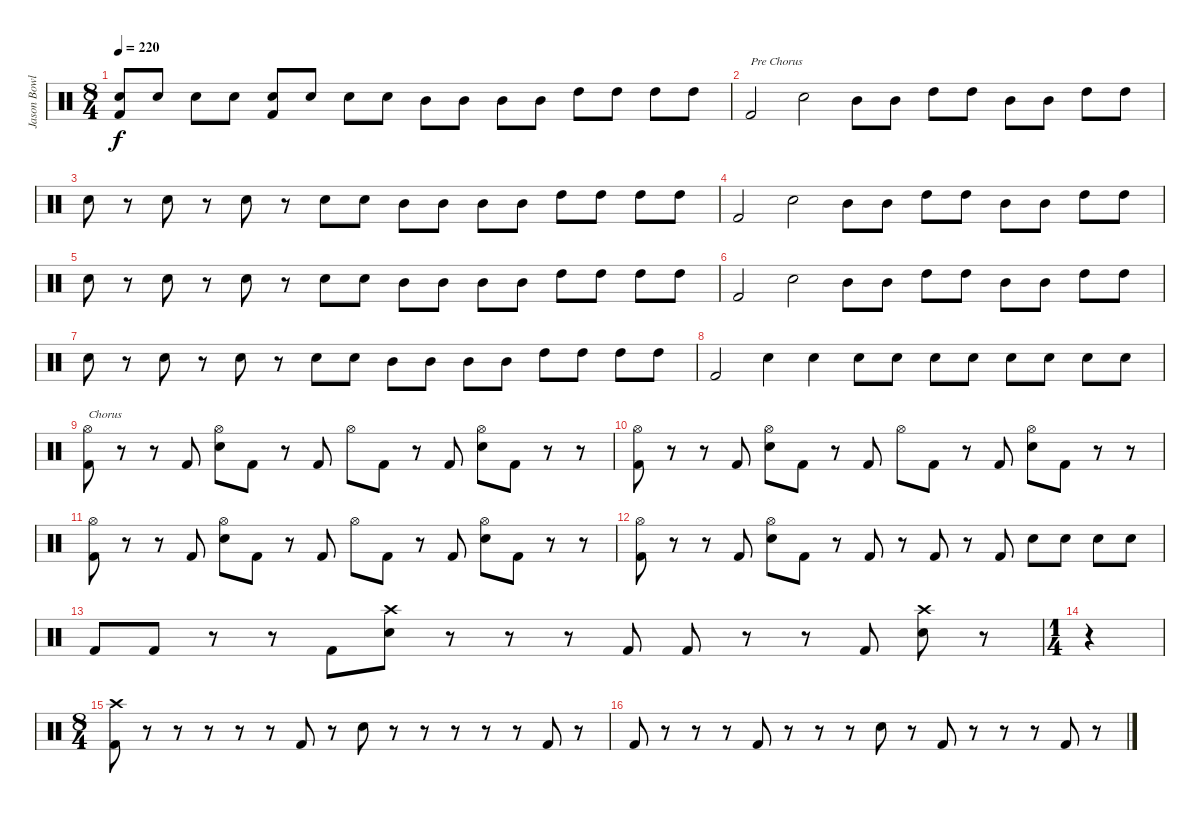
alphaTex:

\track ("Jason Bowld" "Jason Bowl") {instrument percussion}
\staff {score}
\articulation defaults
\ts (8 4)
\tempo 220
\clef neutral
\ks c
("Snare (hit) 2" "Kick (hit) 2").8{dy f} "Snare (hit) 2".8 "Snare (hit) 2".8 "Snare (hit) 2".8 ("Snare (hit) 2" "Kick (hit) 2").8 "Snare (hit) 2".8 "Snare (hit) 2".8 "Snare (hit) 2".8 "Mid Tom (hit)".8 "Mid Tom (hit)".8 "Mid Tom (hit)".8 "Mid Tom (hit)".8 "High Tom (hit)".8 "High Tom (hit)".8 "High Tom (hit)".8 "High Tom (hit)".8 |
"Kick (hit) 2".2{txt "Pre Chorus"} "Snare (hit) 2".2 "Mid Tom (hit)".8 "Mid Tom (hit)".8 "High Tom (hit)".8 "High Tom (hit)".8 "Mid Tom (hit)".8 "Mid Tom (hit)".8 "High Tom (hit)".8 "High Tom (hit)".8 |
"Snare (hit) 2".8 r.8 "Snare (hit) 2".8 r.8 "Snare (hit) 2".8 r.8 "Snare (hit) 2".8 "Snare (hit) 2".8 "Mid Tom (hit)".8 "Mid Tom (hit)".8 "Mid Tom (hit)".8 "Mid Tom (hit)".8 "High Tom (hit)".8 "High Tom (hit)".8 "High Tom (hit)".8 "High Tom (hit)".8 |
"Kick (hit) 2".2 "Snare (hit) 2".2 "Mid Tom (hit)".8 "Mid Tom (hit)".8 "High Tom (hit)".8 "High Tom (hit)".8 "Mid Tom (hit)".8 "Mid Tom (hit)".8 "High Tom (hit)".8 "High Tom (hit)".8 |
"Snare (hit) 2".8 r.8 "Snare (hit) 2".8 r.8 "Snare (hit) 2".8 r.8 "Snare (hit) 2".8 "Snare (hit) 2".8 "Mid Tom (hit)".8 "Mid Tom (hit)".8 "Mid Tom (hit)".8 "Mid Tom (hit)".8 "High Tom (hit)".8 "High Tom (hit)".8 "High Tom (hit)".8 "High Tom (hit)".8 |
"Kick (hit) 2".2 "Snare (hit) 2".2 "Mid Tom (hit)".8 "Mid Tom (hit)".8 "High Tom (hit)".8 "High Tom (hit)".8 "Mid Tom (hit)".8 "Mid Tom (hit)".8 "High Tom (hit)".8 "High Tom (hit)".8 |
"Snare (hit) 2".8 r.8 "Snare (hit) 2".8 r.8 "Snare (hit) 2".8 r.8 "Snare (hit) 2".8 "Snare (hit) 2".8 "Mid Tom (hit)".8 "Mid Tom (hit)".8 "Mid Tom (hit)".8 "Mid Tom (hit)".8 "High Tom (hit)".8 "High Tom (hit)".8 "High Tom (hit)".8 "High Tom (hit)".8 |
"Kick (hit) 2".2 "Snare (hit) 2".4 "Snare (hit) 2".4 "Snare (hit) 2".8 "Snare (hit) 2".8 "Snare (hit) 2".8 "Snare (hit) 2".8 "Snare (hit) 2".8 "Snare (hit) 2".8 "Snare (hit) 2".8 "Snare (hit) 2".8 |
("Hi-Hat (open)" "Kick (hit) 2").8{txt "Chorus"} r.8 r.8 "Kick (hit) 2".8 ("Hi-Hat (open)" "Snare (hit) 2").8 "Kick (hit) 2".8 r.8 "Kick (hit) 2".8 "Hi-Hat (open)".8 "Kick (hit) 2".8 r.8 "Kick (hit) 2".8 ("Hi-Hat (open)" "Snare (hit) 2").8 "Kick (hit) 2".8 r.8 r.8 |
("Hi-Hat (open)" "Kick (hit) 2").8 r.8 r.8 "Kick (hit) 2".8 ("Hi-Hat (open)" "Snare (hit) 2").8 "Kick (hit) 2".8 r.8 "Kick (hit) 2".8 "Hi-Hat (open)".8 "Kick (hit) 2".8 r.8 "Kick (hit) 2".8 ("Hi-Hat (open)" "Snare (hit) 2").8 "Kick (hit) 2".8 r.8 r.8 |
("Hi-Hat (open)" "Kick (hit) 2").8 r.8 r.8 "Kick (hit) 2".8 ("Hi-Hat (open)" "Snare (hit) 2").8 "Kick (hit) 2".8 r.8 "Kick (hit) 2".8 "Hi-Hat (open)".8 "Kick (hit) 2".8 r.8 "Kick (hit) 2".8 ("Hi-Hat (open)" "Snare (hit) 2").8 "Kick (hit) 2".8 r.8 r.8 |
("Hi-Hat (open)" "Kick (hit) 2").8 r.8 r.8 "Kick (hit) 2".8 ("Hi-Hat (open)" "Snare (hit) 2").8 "Kick (hit) 2".8 r.8 "Kick (hit) 2".8 r.8 "Kick (hit) 2".8 r.8 "Kick (hit) 2".8 "Snare (hit) 2".8 "Snare (hit) 2".8 "Snare (hit) 2".8 "Snare (hit) 2".8 |
"Kick (hit) 2".8 "Kick (hit) 2".8 r.8 r.8 "Kick (hit) 2".8 ("Snare (hit) 2" "Crash high (hit)").8 r.8 r.8 r.8 "Kick (hit) 2".8 "Kick (hit) 2".8 r.8 r.8 "Kick (hit) 2".8 ("Snare (hit) 2" "Crash high (hit)").8 r.8 |
\ts (1 4)
r.4 |
\ts (8 4)
("Kick (hit) 2" "Crash high (hit)").8 r.8 r.8 r.8 r.8 r.8 "Kick (hit) 2".8 r.8 "Snare (hit) 2".8 r.8 r.8 r.8 r.8 r.8 "Kick (hit) 2".8 r.8 |
"Kick (hit) 2".8 r.8 r.8 r.8 "Kick (hit) 2".8 r.8 r.8 r.8 "Snare (hit) 2".8 r.8 "Kick (hit) 2".8 r.8 r.8 r.8 "Kick (hit) 2".8 r.8
